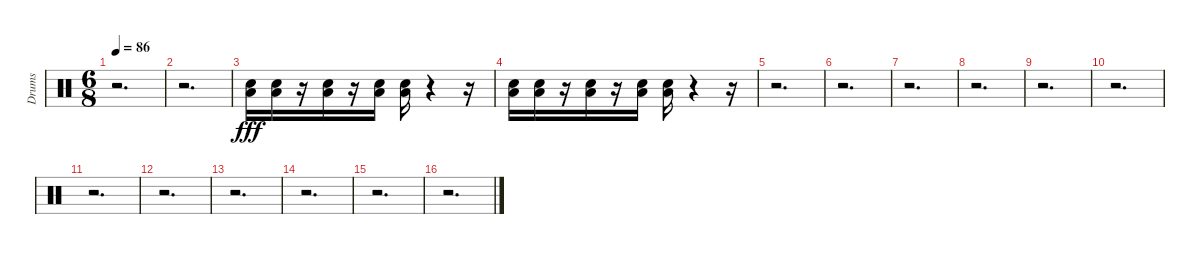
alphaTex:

\track ("Drums" "Drums") {instrument percussion}
\staff {score}
\articulation defaults
\ts (6 8)
\tempo 86
\clef neutral
\ks c
r.2{d dy fff} |
r.2{d} |
("Snare (hit) 2" "Low Floor Tom (hit)").16{volume 9} ("Snare (hit) 2" "Low Floor Tom (hit)").16 r.16 ("Snare (hit) 2" "Low Floor Tom (hit)").16{volume 9} r.16 ("Snare (hit) 2" "Low Floor Tom (hit)").16{volume 10} ("Snare (hit) 2" "Low Floor Tom (hit)").16 r.4 r.16 |
("Snare (hit) 2" "Low Floor Tom (hit)").16{volume 10} ("Snare (hit) 2" "Low Floor Tom (hit)").16 r.16 ("Snare (hit) 2" "Low Floor Tom (hit)").16 r.16 ("Snare (hit) 2" "Low Floor Tom (hit)").16 ("Snare (hit) 2" "Low Floor Tom (hit)").16 r.4 r.16 |
r.2{d} |
r.2{d} |
r.2{d} |
r.2{d} |
r.2{d} |
r.2{d} |
r.2{d} |
r.2{d} |
r.2{d} |
r.2{d} |
r.2{d} |
r.2{d}
